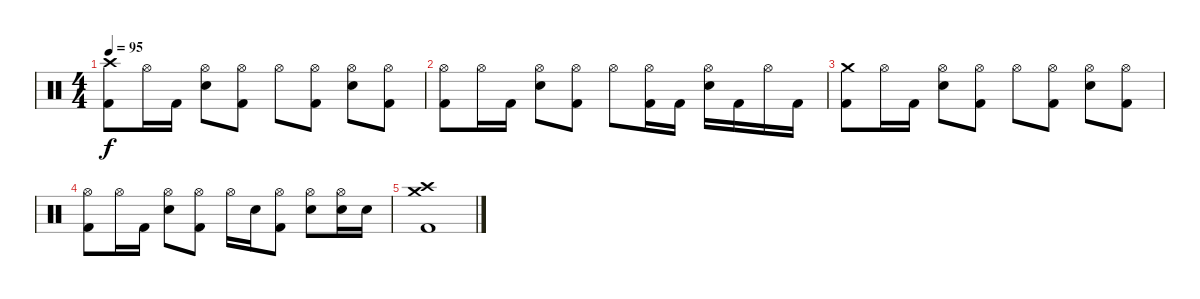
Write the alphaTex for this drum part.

\track "" {instrument percussion}
\staff {score}
\articulation defaults
\ts (4 4)
\tempo 95
\clef neutral
\ks c
("Crash high (hit)" "Kick (hit) 2").8{dy f} "Hi-Hat (open)".16 "Kick (hit) 2".16 ("Hi-Hat (open)" "Electric Snare (hit)").8 ("Hi-Hat (open)" "Kick (hit) 2").8 "Hi-Hat (open)".8 ("Hi-Hat (open)" "Kick (hit) 2").8 ("Hi-Hat (open)" "Electric Snare (hit)").8 ("Hi-Hat (open)" "Kick (hit) 2").8 |
("Hi-Hat (open)" "Kick (hit) 2").8 "Hi-Hat (open)".16 "Kick (hit) 2".16 ("Hi-Hat (open)" "Electric Snare (hit)").8 ("Hi-Hat (open)" "Kick (hit) 2").8 "Hi-Hat (open)".8 ("Hi-Hat (open)" "Kick (hit) 2").16 "Kick (hit) 2".16 ("Hi-Hat (open)" "Electric Snare (hit)").16 "Kick (hit) 2".16 "Hi-Hat (open)".16 "Kick (hit) 2".16 |
("Crash medium (hit)" "Kick (hit) 2").8 "Hi-Hat (open)".16 "Kick (hit) 2".16 ("Hi-Hat (open)" "Electric Snare (hit)").8 ("Hi-Hat (open)" "Kick (hit) 2").8 "Hi-Hat (open)".8 ("Hi-Hat (open)" "Kick (hit) 2").8 ("Hi-Hat (open)" "Electric Snare (hit)").8 ("Hi-Hat (open)" "Kick (hit) 2").8 |
("Hi-Hat (open)" "Kick (hit) 2").8 "Hi-Hat (open)".16 "Kick (hit) 2".16 ("Hi-Hat (open)" "Electric Snare (hit)").8 ("Hi-Hat (open)" "Kick (hit) 2").8 "Hi-Hat (open)".16 "Electric Snare (hit)".16 ("Hi-Hat (open)" "Kick (hit) 2").8 ("Hi-Hat (open)" "Electric Snare (hit)").8 ("Hi-Hat (open)" "Electric Snare (hit)").16 "Electric Snare (hit)".16 |
("Crash high (hit)" "Crash medium (hit)" "Kick (hit) 2").1
